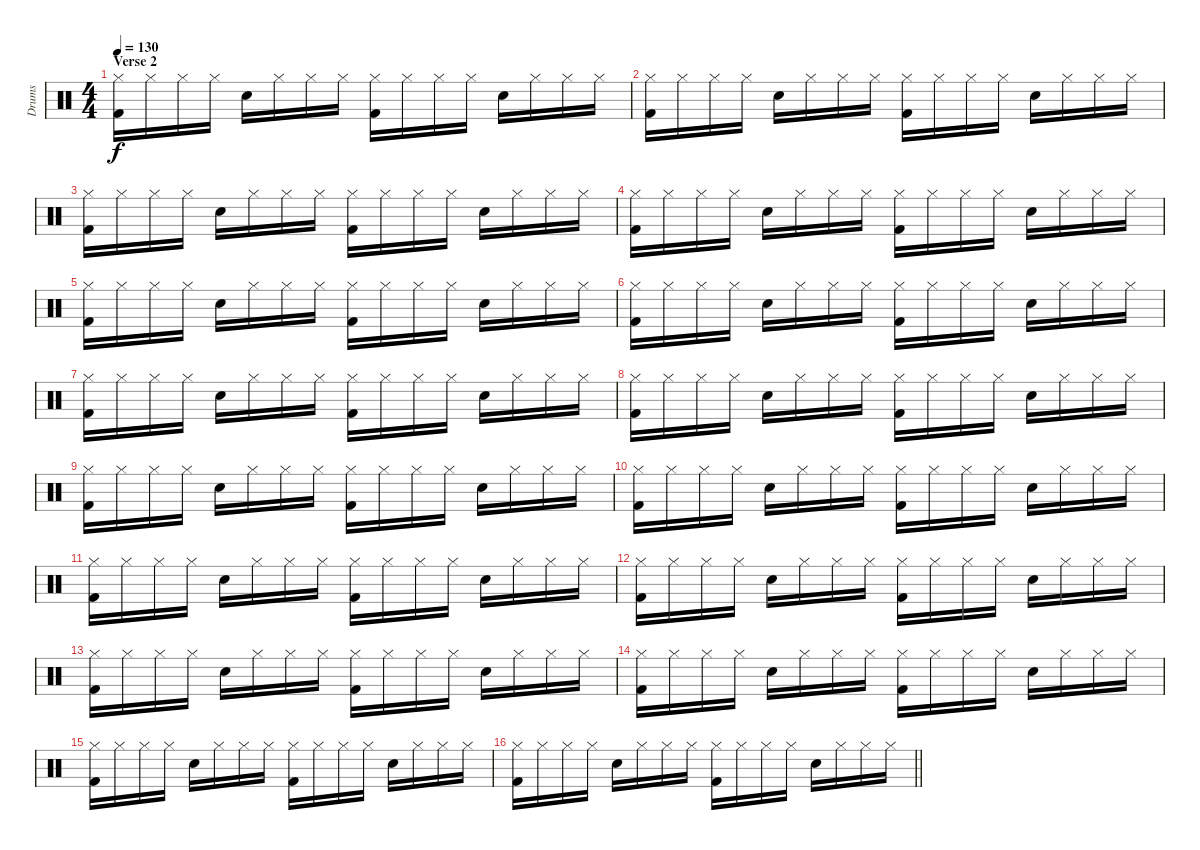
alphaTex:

\track ("Drums" "Drums") {instrument percussion}
\staff {score}
\articulation defaults
\ts (4 4)
\section ("" "Verse 2")
\tempo 130
\clef neutral
\ks c
("Hi-Hat (closed)" "Kick (hit) 2").16{dy f} "Hi-Hat (closed)".16 "Hi-Hat (closed)".16 "Hi-Hat (closed)".16 "Snare (hit) 2".16 "Hi-Hat (closed)".16 "Hi-Hat (closed)".16 "Hi-Hat (closed)".16 ("Hi-Hat (closed)" "Kick (hit) 2").16 "Hi-Hat (closed)".16 "Hi-Hat (closed)".16 "Hi-Hat (closed)".16 "Snare (hit) 2".16 "Hi-Hat (closed)".16 "Hi-Hat (closed)".16 "Hi-Hat (closed)".16 |
("Hi-Hat (closed)" "Kick (hit) 2").16 "Hi-Hat (closed)".16 "Hi-Hat (closed)".16 "Hi-Hat (closed)".16 "Snare (hit) 2".16 "Hi-Hat (closed)".16 "Hi-Hat (closed)".16 "Hi-Hat (closed)".16 ("Hi-Hat (closed)" "Kick (hit) 2").16 "Hi-Hat (closed)".16 "Hi-Hat (closed)".16 "Hi-Hat (closed)".16 "Snare (hit) 2".16 "Hi-Hat (closed)".16 "Hi-Hat (closed)".16 "Hi-Hat (closed)".16 |
("Hi-Hat (closed)" "Kick (hit) 2").16 "Hi-Hat (closed)".16 "Hi-Hat (closed)".16 "Hi-Hat (closed)".16 "Snare (hit) 2".16 "Hi-Hat (closed)".16 "Hi-Hat (closed)".16 "Hi-Hat (closed)".16 ("Hi-Hat (closed)" "Kick (hit) 2").16 "Hi-Hat (closed)".16 "Hi-Hat (closed)".16 "Hi-Hat (closed)".16 "Snare (hit) 2".16 "Hi-Hat (closed)".16 "Hi-Hat (closed)".16 "Hi-Hat (closed)".16 |
("Hi-Hat (closed)" "Kick (hit) 2").16 "Hi-Hat (closed)".16 "Hi-Hat (closed)".16 "Hi-Hat (closed)".16 "Snare (hit) 2".16 "Hi-Hat (closed)".16 "Hi-Hat (closed)".16 "Hi-Hat (closed)".16 ("Hi-Hat (closed)" "Kick (hit) 2").16 "Hi-Hat (closed)".16 "Hi-Hat (closed)".16 "Hi-Hat (closed)".16 "Snare (hit) 2".16 "Hi-Hat (closed)".16 "Hi-Hat (closed)".16 "Hi-Hat (closed)".16 |
("Hi-Hat (closed)" "Kick (hit) 2").16 "Hi-Hat (closed)".16 "Hi-Hat (closed)".16 "Hi-Hat (closed)".16 "Snare (hit) 2".16 "Hi-Hat (closed)".16 "Hi-Hat (closed)".16 "Hi-Hat (closed)".16 ("Hi-Hat (closed)" "Kick (hit) 2").16 "Hi-Hat (closed)".16 "Hi-Hat (closed)".16 "Hi-Hat (closed)".16 "Snare (hit) 2".16 "Hi-Hat (closed)".16 "Hi-Hat (closed)".16 "Hi-Hat (closed)".16 |
("Hi-Hat (closed)" "Kick (hit) 2").16 "Hi-Hat (closed)".16 "Hi-Hat (closed)".16 "Hi-Hat (closed)".16 "Snare (hit) 2".16 "Hi-Hat (closed)".16 "Hi-Hat (closed)".16 "Hi-Hat (closed)".16 ("Hi-Hat (closed)" "Kick (hit) 2").16 "Hi-Hat (closed)".16 "Hi-Hat (closed)".16 "Hi-Hat (closed)".16 "Snare (hit) 2".16 "Hi-Hat (closed)".16 "Hi-Hat (closed)".16 "Hi-Hat (closed)".16 |
("Hi-Hat (closed)" "Kick (hit) 2").16 "Hi-Hat (closed)".16 "Hi-Hat (closed)".16 "Hi-Hat (closed)".16 "Snare (hit) 2".16 "Hi-Hat (closed)".16 "Hi-Hat (closed)".16 "Hi-Hat (closed)".16 ("Hi-Hat (closed)" "Kick (hit) 2").16 "Hi-Hat (closed)".16 "Hi-Hat (closed)".16 "Hi-Hat (closed)".16 "Snare (hit) 2".16 "Hi-Hat (closed)".16 "Hi-Hat (closed)".16 "Hi-Hat (closed)".16 |
("Hi-Hat (closed)" "Kick (hit) 2").16 "Hi-Hat (closed)".16 "Hi-Hat (closed)".16 "Hi-Hat (closed)".16 "Snare (hit) 2".16 "Hi-Hat (closed)".16 "Hi-Hat (closed)".16 "Hi-Hat (closed)".16 ("Hi-Hat (closed)" "Kick (hit) 2").16 "Hi-Hat (closed)".16 "Hi-Hat (closed)".16 "Hi-Hat (closed)".16 "Snare (hit) 2".16 "Hi-Hat (closed)".16 "Hi-Hat (closed)".16 "Hi-Hat (closed)".16 |
("Hi-Hat (closed)" "Kick (hit) 2").16 "Hi-Hat (closed)".16 "Hi-Hat (closed)".16 "Hi-Hat (closed)".16 "Snare (hit) 2".16 "Hi-Hat (closed)".16 "Hi-Hat (closed)".16 "Hi-Hat (closed)".16 ("Hi-Hat (closed)" "Kick (hit) 2").16 "Hi-Hat (closed)".16 "Hi-Hat (closed)".16 "Hi-Hat (closed)".16 "Snare (hit) 2".16 "Hi-Hat (closed)".16 "Hi-Hat (closed)".16 "Hi-Hat (closed)".16 |
("Hi-Hat (closed)" "Kick (hit) 2").16 "Hi-Hat (closed)".16 "Hi-Hat (closed)".16 "Hi-Hat (closed)".16 "Snare (hit) 2".16 "Hi-Hat (closed)".16 "Hi-Hat (closed)".16 "Hi-Hat (closed)".16 ("Hi-Hat (closed)" "Kick (hit) 2").16 "Hi-Hat (closed)".16 "Hi-Hat (closed)".16 "Hi-Hat (closed)".16 "Snare (hit) 2".16 "Hi-Hat (closed)".16 "Hi-Hat (closed)".16 "Hi-Hat (closed)".16 |
("Hi-Hat (closed)" "Kick (hit) 2").16 "Hi-Hat (closed)".16 "Hi-Hat (closed)".16 "Hi-Hat (closed)".16 "Snare (hit) 2".16 "Hi-Hat (closed)".16 "Hi-Hat (closed)".16 "Hi-Hat (closed)".16 ("Hi-Hat (closed)" "Kick (hit) 2").16 "Hi-Hat (closed)".16 "Hi-Hat (closed)".16 "Hi-Hat (closed)".16 "Snare (hit) 2".16 "Hi-Hat (closed)".16 "Hi-Hat (closed)".16 "Hi-Hat (closed)".16 |
("Hi-Hat (closed)" "Kick (hit) 2").16 "Hi-Hat (closed)".16 "Hi-Hat (closed)".16 "Hi-Hat (closed)".16 "Snare (hit) 2".16 "Hi-Hat (closed)".16 "Hi-Hat (closed)".16 "Hi-Hat (closed)".16 ("Hi-Hat (closed)" "Kick (hit) 2").16 "Hi-Hat (closed)".16 "Hi-Hat (closed)".16 "Hi-Hat (closed)".16 "Snare (hit) 2".16 "Hi-Hat (closed)".16 "Hi-Hat (closed)".16 "Hi-Hat (closed)".16 |
("Hi-Hat (closed)" "Kick (hit) 2").16 "Hi-Hat (closed)".16 "Hi-Hat (closed)".16 "Hi-Hat (closed)".16 "Snare (hit) 2".16 "Hi-Hat (closed)".16 "Hi-Hat (closed)".16 "Hi-Hat (closed)".16 ("Hi-Hat (closed)" "Kick (hit) 2").16 "Hi-Hat (closed)".16 "Hi-Hat (closed)".16 "Hi-Hat (closed)".16 "Snare (hit) 2".16 "Hi-Hat (closed)".16 "Hi-Hat (closed)".16 "Hi-Hat (closed)".16 |
("Hi-Hat (closed)" "Kick (hit) 2").16 "Hi-Hat (closed)".16 "Hi-Hat (closed)".16 "Hi-Hat (closed)".16 "Snare (hit) 2".16 "Hi-Hat (closed)".16 "Hi-Hat (closed)".16 "Hi-Hat (closed)".16 ("Hi-Hat (closed)" "Kick (hit) 2").16 "Hi-Hat (closed)".16 "Hi-Hat (closed)".16 "Hi-Hat (closed)".16 "Snare (hit) 2".16 "Hi-Hat (closed)".16 "Hi-Hat (closed)".16 "Hi-Hat (closed)".16 |
("Hi-Hat (closed)" "Kick (hit) 2").16 "Hi-Hat (closed)".16 "Hi-Hat (closed)".16 "Hi-Hat (closed)".16 "Snare (hit) 2".16 "Hi-Hat (closed)".16 "Hi-Hat (closed)".16 "Hi-Hat (closed)".16 ("Hi-Hat (closed)" "Kick (hit) 2").16 "Hi-Hat (closed)".16 "Hi-Hat (closed)".16 "Hi-Hat (closed)".16 "Snare (hit) 2".16 "Hi-Hat (closed)".16 "Hi-Hat (closed)".16 "Hi-Hat (closed)".16 |
\barLineRight lightlight
("Hi-Hat (closed)" "Kick (hit) 2").16 "Hi-Hat (closed)".16 "Hi-Hat (closed)".16 "Hi-Hat (closed)".16 "Snare (hit) 2".16 "Hi-Hat (closed)".16 "Hi-Hat (closed)".16 "Hi-Hat (closed)".16 ("Hi-Hat (closed)" "Kick (hit) 2").16 "Hi-Hat (closed)".16 "Hi-Hat (closed)".16 "Hi-Hat (closed)".16 "Snare (hit) 2".16 "Hi-Hat (closed)".16 "Hi-Hat (closed)".16 "Hi-Hat (closed)".16
